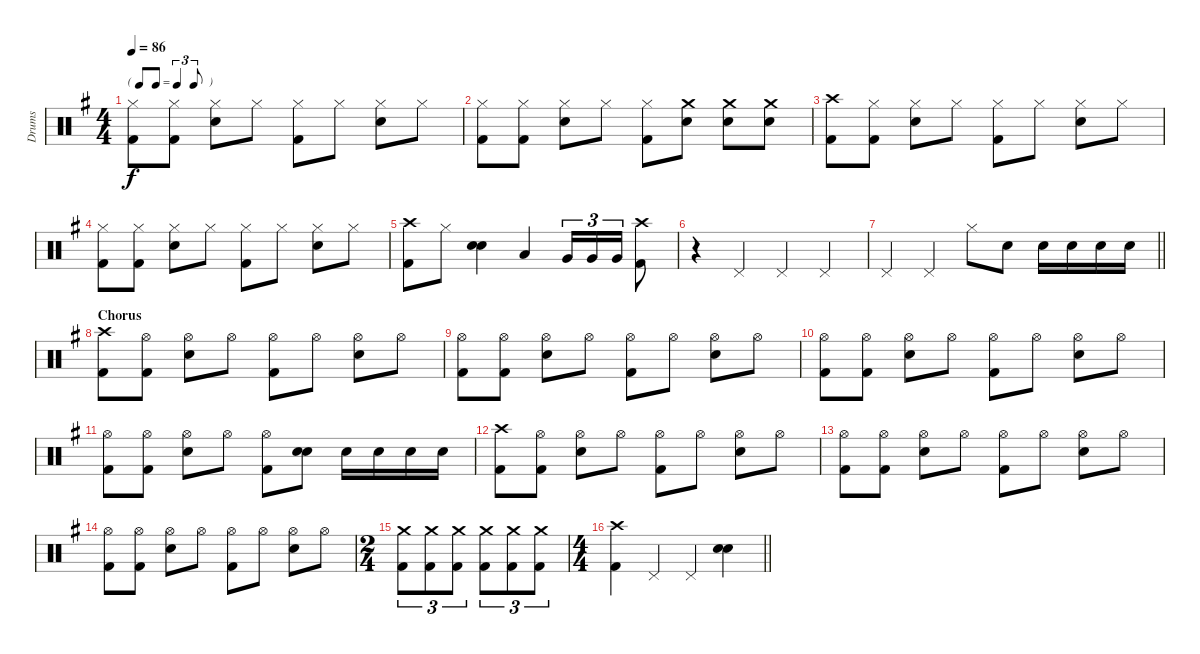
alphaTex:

\track ("Drums" "Drums") {instrument percussion}
\staff {score}
\articulation defaults
\ts (4 4)
\tf triplet8th
\tempo 86
\clef neutral
\ks g
("Hi-Hat (closed)" "Kick (hit) 2").8{dy f} ("Hi-Hat (closed)" "Kick (hit) 2").8 ("Hi-Hat (closed)" "Snare (hit) 2").8 "Hi-Hat (closed)".8 ("Hi-Hat (closed)" "Kick (hit) 2").8 "Hi-Hat (closed)".8 ("Hi-Hat (closed)" "Snare (hit) 2").8 "Hi-Hat (closed)".8 |
("Hi-Hat (closed)" "Kick (hit) 2").8 ("Hi-Hat (closed)" "Kick (hit) 2").8 ("Hi-Hat (closed)" "Snare (hit) 2").8 "Hi-Hat (closed)".8 ("Hi-Hat (closed)" "Kick (hit) 2").8 ("Crash medium (hit)" "Snare (hit) 2").8 ("Crash medium (hit)" "Snare (hit) 2").8 ("Crash medium (hit)" "Snare (hit) 2").8 |
("Crash high (hit)" "Kick (hit) 2").8 ("Hi-Hat (closed)" "Kick (hit) 2").8 ("Hi-Hat (closed)" "Snare (hit) 2").8 "Hi-Hat (closed)".8 ("Hi-Hat (closed)" "Kick (hit) 2").8 "Hi-Hat (closed)".8 ("Hi-Hat (closed)" "Snare (hit) 2").8 "Hi-Hat (closed)".8 |
("Hi-Hat (closed)" "Kick (hit) 2").8 ("Hi-Hat (closed)" "Kick (hit) 2").8 ("Hi-Hat (closed)" "Snare (hit) 2").8 "Hi-Hat (closed)".8 ("Hi-Hat (closed)" "Kick (hit) 2").8 "Hi-Hat (closed)".8 ("Hi-Hat (closed)" "Snare (hit) 2").8 "Hi-Hat (closed)".8 |
("Crash high (hit)" "Kick (hit) 2").8 "Hi-Hat (closed)".8 ("Snare (hit) 2" "Snare (hit) 2").4 "Low Tom (hit)".4 "Very Low Tom (hit)".16{tu (3 2)} "Very Low Tom (hit)".16{tu (3 2)} "Very Low Tom (hit)".16{tu (3 2)} ("Crash high (hit)" "Kick (hit) 2").8 |
r.4 "Pedal Hi-Hat (hit)".4 "Pedal Hi-Hat (hit)".4 "Pedal Hi-Hat (hit)".4 |
\barLineRight lightlight "Pedal Hi-Hat (hit)".4 "Pedal Hi-Hat (hit)".4 "Hi-Hat (closed)".8 "Snare (hit) 2".8 "Snare (hit) 2".16 "Snare (hit) 2".16 "Snare (hit) 2".16 "Snare (hit) 2".16
|
\section ("" "Chorus")
("Crash high (hit)" "Kick (hit) 2").8 ("Hi-Hat (open)" "Kick (hit) 2").8 ("Hi-Hat (open)" "Snare (hit) 2").8 "Hi-Hat (open)".8 ("Hi-Hat (open)" "Kick (hit) 2").8 "Hi-Hat (open)".8 ("Hi-Hat (open)" "Snare (hit) 2").8 "Hi-Hat (open)".8 |
("Hi-Hat (open)" "Kick (hit) 2").8 ("Hi-Hat (open)" "Kick (hit) 2").8 ("Hi-Hat (open)" "Snare (hit) 2").8 "Hi-Hat (open)".8 ("Hi-Hat (open)" "Kick (hit) 2").8 "Hi-Hat (open)".8 ("Hi-Hat (open)" "Snare (hit) 2").8 "Hi-Hat (open)".8 |
("Hi-Hat (open)" "Kick (hit) 2").8 ("Hi-Hat (open)" "Kick (hit) 2").8 ("Hi-Hat (open)" "Snare (hit) 2").8 "Hi-Hat (open)".8 ("Hi-Hat (open)" "Kick (hit) 2").8 "Hi-Hat (open)".8 ("Hi-Hat (open)" "Snare (hit) 2").8 "Hi-Hat (open)".8 |
("Hi-Hat (open)" "Kick (hit) 2").8 ("Hi-Hat (open)" "Kick (hit) 2").8 ("Hi-Hat (open)" "Snare (hit) 2").8 "Hi-Hat (open)".8 ("Hi-Hat (open)" "Kick (hit) 2").8 ("Snare (hit) 2" "Snare (hit) 2").8 "Snare (hit) 2".16 "Snare (hit) 2".16 "Snare (hit) 2".16 "Snare (hit) 2".16 |
("Crash high (hit)" "Kick (hit) 2").8 ("Hi-Hat (open)" "Kick (hit) 2").8 ("Hi-Hat (open)" "Snare (hit) 2").8 "Hi-Hat (open)".8 ("Hi-Hat (open)" "Kick (hit) 2").8 "Hi-Hat (open)".8 ("Hi-Hat (open)" "Snare (hit) 2").8 "Hi-Hat (open)".8 |
("Hi-Hat (open)" "Kick (hit) 2").8 ("Hi-Hat (open)" "Kick (hit) 2").8 ("Hi-Hat (open)" "Snare (hit) 2").8 "Hi-Hat (open)".8 ("Hi-Hat (open)" "Kick (hit) 2").8 "Hi-Hat (open)".8 ("Hi-Hat (open)" "Snare (hit) 2").8 "Hi-Hat (open)".8 |
("Hi-Hat (open)" "Kick (hit) 2").8 ("Hi-Hat (open)" "Kick (hit) 2").8 ("Hi-Hat (open)" "Snare (hit) 2").8 "Hi-Hat (open)".8 ("Hi-Hat (open)" "Kick (hit) 2").8 "Hi-Hat (open)".8 ("Hi-Hat (open)" "Snare (hit) 2").8 "Hi-Hat (open)".8 |
\ts (2 4)
("Crash medium (hit)" "Kick (hit) 2").8{tu (3 2)} ("Crash medium (hit)" "Kick (hit) 2").8{tu (3 2)} ("Crash medium (hit)" "Kick (hit) 2").8{tu (3 2)} ("Crash medium (hit)" "Kick (hit) 2").8{tu (3 2)} ("Crash medium (hit)" "Kick (hit) 2").8{tu (3 2)} ("Crash medium (hit)" "Kick (hit) 2").8{tu (3 2)} |
\ts (4 4)
\barLineRight lightlight
("Crash high (hit)" "Kick (hit) 2").4 "Pedal Hi-Hat (hit)".4 "Pedal Hi-Hat (hit)".4 ("Snare (hit) 2" "Snare (hit) 2").4
